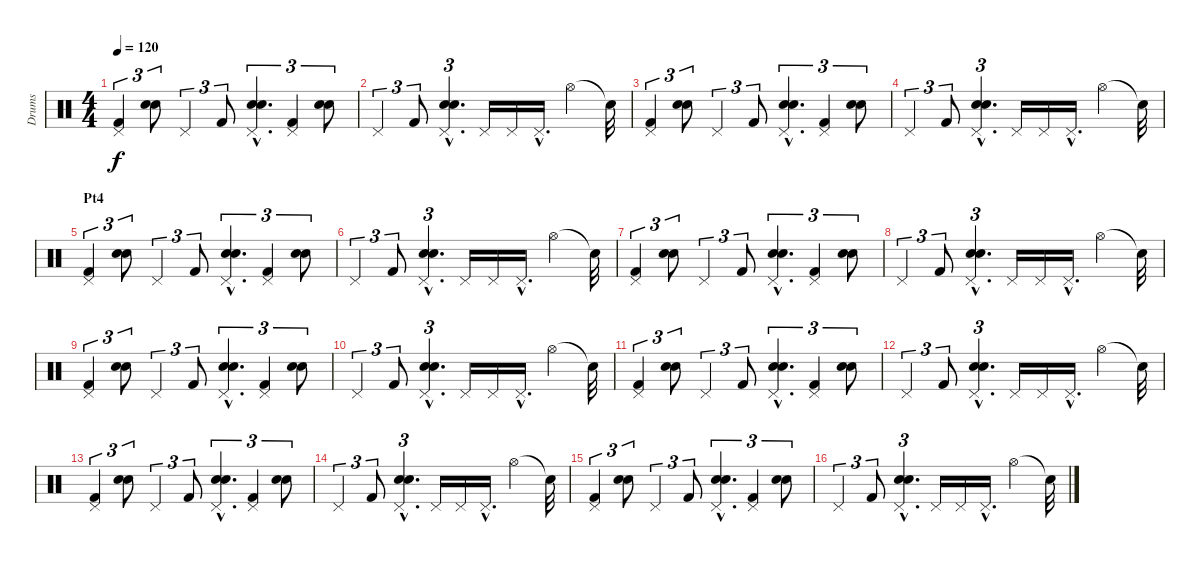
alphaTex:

\track ("Drums" "Drums") {instrument percussion}
\staff {score}
\articulation defaults
\ts (4 4)
\tempo 120
\clef neutral
\ks c
("Pedal Hi-Hat (hit)" "Kick (hit) 2").4{tu (3 2) dy f} ("Electric Snare (hit)" "Snare (hit) 2").8{tu (3 2)} "Pedal Hi-Hat (hit)".4{tu (3 2)} "Kick (hit) 2".8{tu (3 2)} ("Pedal Hi-Hat (hit)"{hac} "Electric Snare (hit)"{hac} "Snare (hit) 2"{hac}).4{d tu (3 2)} ("Pedal Hi-Hat (hit)" "Kick (hit) 2").4{tu (3 2)} ("Electric Snare (hit)" "Snare (hit) 2").8{tu (3 2)} |
"Pedal Hi-Hat (hit)".4{tu (3 2)} "Kick (hit) 2".8{tu (3 2)} ("Pedal Hi-Hat (hit)"{hac} "Electric Snare (hit)"{hac} "Snare (hit) 2"{hac}).4{d tu (3 2)} "Pedal Hi-Hat (hit)".16 "Pedal Hi-Hat (hit)".16 "Pedal Hi-Hat (hit)"{hac}.16{d} "Hi-Hat (open)".4 "Snare (hit)"{t}.32 |
("Pedal Hi-Hat (hit)" "Kick (hit) 2").4{tu (3 2)} ("Electric Snare (hit)" "Snare (hit) 2").8{tu (3 2)} "Pedal Hi-Hat (hit)".4{tu (3 2)} "Kick (hit) 2".8{tu (3 2)} ("Pedal Hi-Hat (hit)"{hac} "Electric Snare (hit)"{hac} "Snare (hit) 2"{hac}).4{d tu (3 2)} ("Pedal Hi-Hat (hit)" "Kick (hit) 2").4{tu (3 2)} ("Electric Snare (hit)" "Snare (hit) 2").8{tu (3 2)} |
"Pedal Hi-Hat (hit)".4{tu (3 2)} "Kick (hit) 2".8{tu (3 2)} ("Pedal Hi-Hat (hit)"{hac} "Electric Snare (hit)"{hac} "Snare (hit) 2"{hac}).4{d tu (3 2)} "Pedal Hi-Hat (hit)".16 "Pedal Hi-Hat (hit)".16 "Pedal Hi-Hat (hit)"{hac}.16{d} "Hi-Hat (open)".4 "Snare (hit)"{t}.32 |
\section ("" "Pt4")
("Pedal Hi-Hat (hit)" "Kick (hit) 2").4{tu (3 2) volume 16} ("Electric Snare (hit)" "Snare (hit) 2").8{tu (3 2)} "Pedal Hi-Hat (hit)".4{tu (3 2)} "Kick (hit) 2".8{tu (3 2)} ("Pedal Hi-Hat (hit)"{hac} "Electric Snare (hit)"{hac} "Snare (hit) 2"{hac}).4{d tu (3 2)} ("Pedal Hi-Hat (hit)" "Kick (hit) 2").4{tu (3 2)} ("Electric Snare (hit)" "Snare (hit) 2").8{tu (3 2)} |
"Pedal Hi-Hat (hit)".4{tu (3 2)} "Kick (hit) 2".8{tu (3 2)} ("Pedal Hi-Hat (hit)"{hac} "Electric Snare (hit)"{hac} "Snare (hit) 2"{hac}).4{d tu (3 2)} "Pedal Hi-Hat (hit)".16 "Pedal Hi-Hat (hit)".16 "Pedal Hi-Hat (hit)"{hac}.16{d} "Hi-Hat (open)".4 "Snare (hit)"{t}.32 |
("Pedal Hi-Hat (hit)" "Kick (hit) 2").4{tu (3 2)} ("Electric Snare (hit)" "Snare (hit) 2").8{tu (3 2)} "Pedal Hi-Hat (hit)".4{tu (3 2)} "Kick (hit) 2".8{tu (3 2)} ("Pedal Hi-Hat (hit)"{hac} "Electric Snare (hit)"{hac} "Snare (hit) 2"{hac}).4{d tu (3 2)} ("Pedal Hi-Hat (hit)" "Kick (hit) 2").4{tu (3 2)} ("Electric Snare (hit)" "Snare (hit) 2").8{tu (3 2)} |
"Pedal Hi-Hat (hit)".4{tu (3 2)} "Kick (hit) 2".8{tu (3 2)} ("Pedal Hi-Hat (hit)"{hac} "Electric Snare (hit)"{hac} "Snare (hit) 2"{hac}).4{d tu (3 2)} "Pedal Hi-Hat (hit)".16 "Pedal Hi-Hat (hit)".16 "Pedal Hi-Hat (hit)"{hac}.16{d} "Hi-Hat (open)".4 "Snare (hit)"{t}.32 |
("Pedal Hi-Hat (hit)" "Kick (hit) 2").4{tu (3 2)} ("Electric Snare (hit)" "Snare (hit) 2").8{tu (3 2)} "Pedal Hi-Hat (hit)".4{tu (3 2)} "Kick (hit) 2".8{tu (3 2)} ("Pedal Hi-Hat (hit)"{hac} "Electric Snare (hit)"{hac} "Snare (hit) 2"{hac}).4{d tu (3 2)} ("Pedal Hi-Hat (hit)" "Kick (hit) 2").4{tu (3 2)} ("Electric Snare (hit)" "Snare (hit) 2").8{tu (3 2)} |
"Pedal Hi-Hat (hit)".4{tu (3 2)} "Kick (hit) 2".8{tu (3 2)} ("Pedal Hi-Hat (hit)"{hac} "Electric Snare (hit)"{hac} "Snare (hit) 2"{hac}).4{d tu (3 2)} "Pedal Hi-Hat (hit)".16 "Pedal Hi-Hat (hit)".16 "Pedal Hi-Hat (hit)"{hac}.16{d} "Hi-Hat (open)".4 "Snare (hit)"{t}.32 |
("Pedal Hi-Hat (hit)" "Kick (hit) 2").4{tu (3 2)} ("Electric Snare (hit)" "Snare (hit) 2").8{tu (3 2)} "Pedal Hi-Hat (hit)".4{tu (3 2)} "Kick (hit) 2".8{tu (3 2)} ("Pedal Hi-Hat (hit)"{hac} "Electric Snare (hit)"{hac} "Snare (hit) 2"{hac}).4{d tu (3 2)} ("Pedal Hi-Hat (hit)" "Kick (hit) 2").4{tu (3 2)} ("Electric Snare (hit)" "Snare (hit) 2").8{tu (3 2)} |
"Pedal Hi-Hat (hit)".4{tu (3 2)} "Kick (hit) 2".8{tu (3 2)} ("Pedal Hi-Hat (hit)"{hac} "Electric Snare (hit)"{hac} "Snare (hit) 2"{hac}).4{d tu (3 2)} "Pedal Hi-Hat (hit)".16 "Pedal Hi-Hat (hit)".16 "Pedal Hi-Hat (hit)"{hac}.16{d} "Hi-Hat (open)".4 "Snare (hit)"{t}.32 |
("Pedal Hi-Hat (hit)" "Kick (hit) 2").4{tu (3 2) volume 16} ("Electric Snare (hit)" "Snare (hit) 2").8{tu (3 2)} "Pedal Hi-Hat (hit)".4{tu (3 2)} "Kick (hit) 2".8{tu (3 2)} ("Pedal Hi-Hat (hit)"{hac} "Electric Snare (hit)"{hac} "Snare (hit) 2"{hac}).4{d tu (3 2)} ("Pedal Hi-Hat (hit)" "Kick (hit) 2").4{tu (3 2)} ("Electric Snare (hit)" "Snare (hit) 2").8{tu (3 2)} |
"Pedal Hi-Hat (hit)".4{tu (3 2)} "Kick (hit) 2".8{tu (3 2)} ("Pedal Hi-Hat (hit)"{hac} "Electric Snare (hit)"{hac} "Snare (hit) 2"{hac}).4{d tu (3 2)} "Pedal Hi-Hat (hit)".16 "Pedal Hi-Hat (hit)".16 "Pedal Hi-Hat (hit)"{hac}.16{d} "Hi-Hat (open)".4 "Snare (hit)"{t}.32 |
("Pedal Hi-Hat (hit)" "Kick (hit) 2").4{tu (3 2)} ("Electric Snare (hit)" "Snare (hit) 2").8{tu (3 2)} "Pedal Hi-Hat (hit)".4{tu (3 2)} "Kick (hit) 2".8{tu (3 2)} ("Pedal Hi-Hat (hit)"{hac} "Electric Snare (hit)"{hac} "Snare (hit) 2"{hac}).4{d tu (3 2)} ("Pedal Hi-Hat (hit)" "Kick (hit) 2").4{tu (3 2)} ("Electric Snare (hit)" "Snare (hit) 2").8{tu (3 2)} |
"Pedal Hi-Hat (hit)".4{tu (3 2)} "Kick (hit) 2".8{tu (3 2)} ("Pedal Hi-Hat (hit)"{hac} "Electric Snare (hit)"{hac} "Snare (hit) 2"{hac}).4{d tu (3 2)} "Pedal Hi-Hat (hit)".16 "Pedal Hi-Hat (hit)".16 "Pedal Hi-Hat (hit)"{hac}.16{d} "Hi-Hat (open)".4 "Snare (hit)"{t}.32
